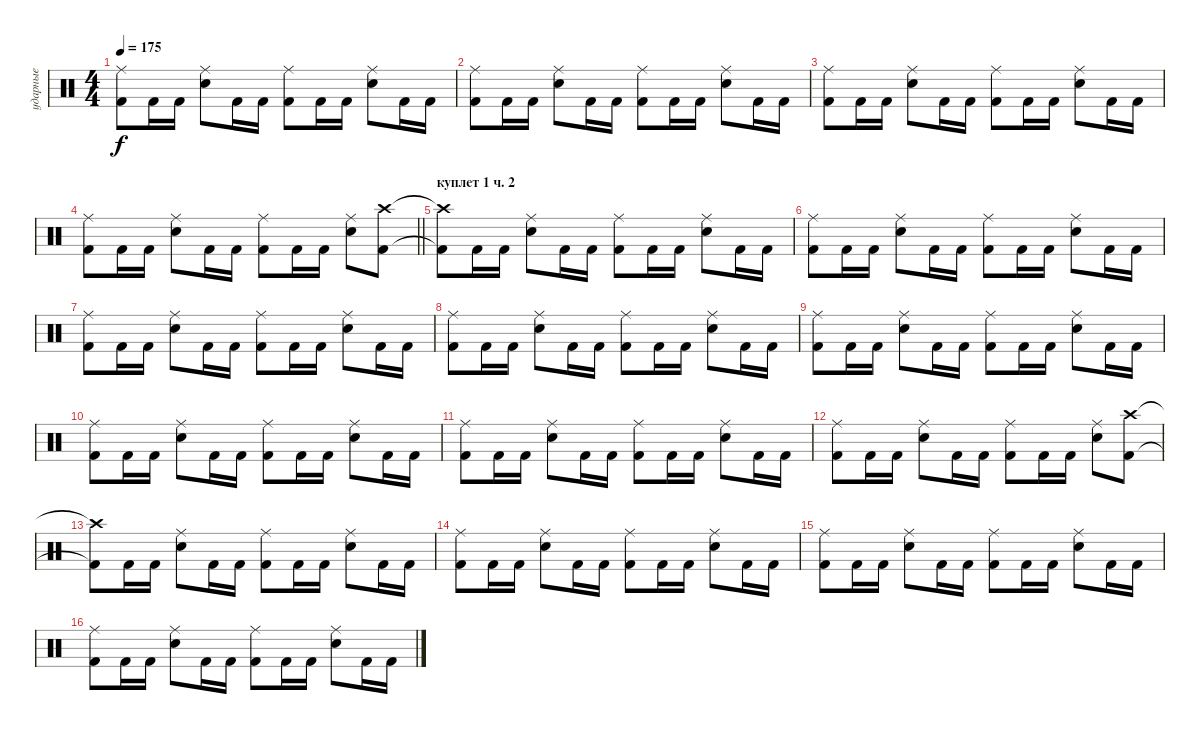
\track ("ударные" "ударные") {instrument percussion}
\staff {score}
\articulation defaults
\ts (4 4)
\tempo 175
\clef neutral
\ks c
("Kick (hit) 2" "Ride (middle)").8{dy f} "Kick (hit) 2".16 "Kick (hit) 2".16 ("Snare (hit) 2" "Ride (middle)").8 "Kick (hit) 2".16 "Kick (hit) 2".16 ("Kick (hit) 2" "Ride (middle)").8 "Kick (hit) 2".16 "Kick (hit) 2".16 ("Snare (hit) 2" "Ride (middle)").8 "Kick (hit) 2".16 "Kick (hit) 2".16 |
("Kick (hit) 2" "Ride (middle)").8 "Kick (hit) 2".16 "Kick (hit) 2".16 ("Snare (hit) 2" "Ride (middle)").8 "Kick (hit) 2".16 "Kick (hit) 2".16 ("Kick (hit) 2" "Ride (middle)").8 "Kick (hit) 2".16 "Kick (hit) 2".16 ("Snare (hit) 2" "Ride (middle)").8 "Kick (hit) 2".16 "Kick (hit) 2".16 |
("Kick (hit) 2" "Ride (middle)").8 "Kick (hit) 2".16 "Kick (hit) 2".16 ("Snare (hit) 2" "Ride (middle)").8 "Kick (hit) 2".16 "Kick (hit) 2".16 ("Kick (hit) 2" "Ride (middle)").8 "Kick (hit) 2".16 "Kick (hit) 2".16 ("Snare (hit) 2" "Ride (middle)").8 "Kick (hit) 2".16 "Kick (hit) 2".16 |
\barLineRight lightlight
("Kick (hit) 2" "Ride (middle)").8 "Kick (hit) 2".16 "Kick (hit) 2".16 ("Snare (hit) 2" "Ride (middle)").8 "Kick (hit) 2".16 "Kick (hit) 2".16 ("Kick (hit) 2" "Ride (middle)").8 "Kick (hit) 2".16 "Kick (hit) 2".16 ("Snare (hit) 2" "Ride (middle)").8 ("Kick (hit) 2" "Crash high (hit)").8 |
\section ("" "куплет 1 ч. 2")
("Kick (hit) 2"{t} "Crash high (hit)"{t}).8 "Kick (hit) 2".16 "Kick (hit) 2".16 ("Snare (hit) 2" "Ride (middle)").8 "Kick (hit) 2".16 "Kick (hit) 2".16 ("Kick (hit) 2" "Ride (middle)").8 "Kick (hit) 2".16 "Kick (hit) 2".16 ("Snare (hit) 2" "Ride (middle)").8 "Kick (hit) 2".16 "Kick (hit) 2".16 |
("Kick (hit) 2" "Ride (middle)").8 "Kick (hit) 2".16 "Kick (hit) 2".16 ("Snare (hit) 2" "Ride (middle)").8 "Kick (hit) 2".16 "Kick (hit) 2".16 ("Kick (hit) 2" "Ride (middle)").8 "Kick (hit) 2".16 "Kick (hit) 2".16 ("Snare (hit) 2" "Ride (middle)").8 "Kick (hit) 2".16 "Kick (hit) 2".16 |
("Kick (hit) 2" "Ride (middle)").8 "Kick (hit) 2".16 "Kick (hit) 2".16 ("Snare (hit) 2" "Ride (middle)").8 "Kick (hit) 2".16 "Kick (hit) 2".16 ("Kick (hit) 2" "Ride (middle)").8 "Kick (hit) 2".16 "Kick (hit) 2".16 ("Snare (hit) 2" "Ride (middle)").8 "Kick (hit) 2".16 "Kick (hit) 2".16 |
("Kick (hit) 2" "Ride (middle)").8 "Kick (hit) 2".16 "Kick (hit) 2".16 ("Snare (hit) 2" "Ride (middle)").8 "Kick (hit) 2".16 "Kick (hit) 2".16 ("Kick (hit) 2" "Ride (middle)").8 "Kick (hit) 2".16 "Kick (hit) 2".16 ("Snare (hit) 2" "Ride (middle)").8 "Kick (hit) 2".16 "Kick (hit) 2".16 |
("Kick (hit) 2" "Ride (middle)").8 "Kick (hit) 2".16 "Kick (hit) 2".16 ("Snare (hit) 2" "Ride (middle)").8 "Kick (hit) 2".16 "Kick (hit) 2".16 ("Kick (hit) 2" "Ride (middle)").8 "Kick (hit) 2".16 "Kick (hit) 2".16 ("Snare (hit) 2" "Ride (middle)").8 "Kick (hit) 2".16 "Kick (hit) 2".16 |
("Kick (hit) 2" "Ride (middle)").8 "Kick (hit) 2".16 "Kick (hit) 2".16 ("Snare (hit) 2" "Ride (middle)").8 "Kick (hit) 2".16 "Kick (hit) 2".16 ("Kick (hit) 2" "Ride (middle)").8 "Kick (hit) 2".16 "Kick (hit) 2".16 ("Snare (hit) 2" "Ride (middle)").8 "Kick (hit) 2".16 "Kick (hit) 2".16 |
("Kick (hit) 2" "Ride (middle)").8 "Kick (hit) 2".16 "Kick (hit) 2".16 ("Snare (hit) 2" "Ride (middle)").8 "Kick (hit) 2".16 "Kick (hit) 2".16 ("Kick (hit) 2" "Ride (middle)").8 "Kick (hit) 2".16 "Kick (hit) 2".16 ("Snare (hit) 2" "Ride (middle)").8 "Kick (hit) 2".16 "Kick (hit) 2".16 |
("Kick (hit) 2" "Ride (middle)").8 "Kick (hit) 2".16 "Kick (hit) 2".16 ("Snare (hit) 2" "Ride (middle)").8 "Kick (hit) 2".16 "Kick (hit) 2".16 ("Kick (hit) 2" "Ride (middle)").8 "Kick (hit) 2".16 "Kick (hit) 2".16 ("Snare (hit) 2" "Ride (middle)").8 ("Kick (hit) 2" "Crash high (hit)").8 |
("Kick (hit) 2"{t} "Crash high (hit)"{t}).8 "Kick (hit) 2".16 "Kick (hit) 2".16 ("Snare (hit) 2" "Ride (middle)").8 "Kick (hit) 2".16 "Kick (hit) 2".16 ("Kick (hit) 2" "Ride (middle)").8 "Kick (hit) 2".16 "Kick (hit) 2".16 ("Snare (hit) 2" "Ride (middle)").8 "Kick (hit) 2".16 "Kick (hit) 2".16 |
("Kick (hit) 2" "Ride (middle)").8 "Kick (hit) 2".16 "Kick (hit) 2".16 ("Snare (hit) 2" "Ride (middle)").8 "Kick (hit) 2".16 "Kick (hit) 2".16 ("Kick (hit) 2" "Ride (middle)").8 "Kick (hit) 2".16 "Kick (hit) 2".16 ("Snare (hit) 2" "Ride (middle)").8 "Kick (hit) 2".16 "Kick (hit) 2".16 |
("Kick (hit) 2" "Ride (middle)").8 "Kick (hit) 2".16 "Kick (hit) 2".16 ("Snare (hit) 2" "Ride (middle)").8 "Kick (hit) 2".16 "Kick (hit) 2".16 ("Kick (hit) 2" "Ride (middle)").8 "Kick (hit) 2".16 "Kick (hit) 2".16 ("Snare (hit) 2" "Ride (middle)").8 "Kick (hit) 2".16 "Kick (hit) 2".16 |
("Kick (hit) 2" "Ride (middle)").8 "Kick (hit) 2".16 "Kick (hit) 2".16 ("Snare (hit) 2" "Ride (middle)").8 "Kick (hit) 2".16 "Kick (hit) 2".16 ("Kick (hit) 2" "Ride (middle)").8 "Kick (hit) 2".16 "Kick (hit) 2".16 ("Snare (hit) 2" "Ride (middle)").8 "Kick (hit) 2".16 "Kick (hit) 2".16
